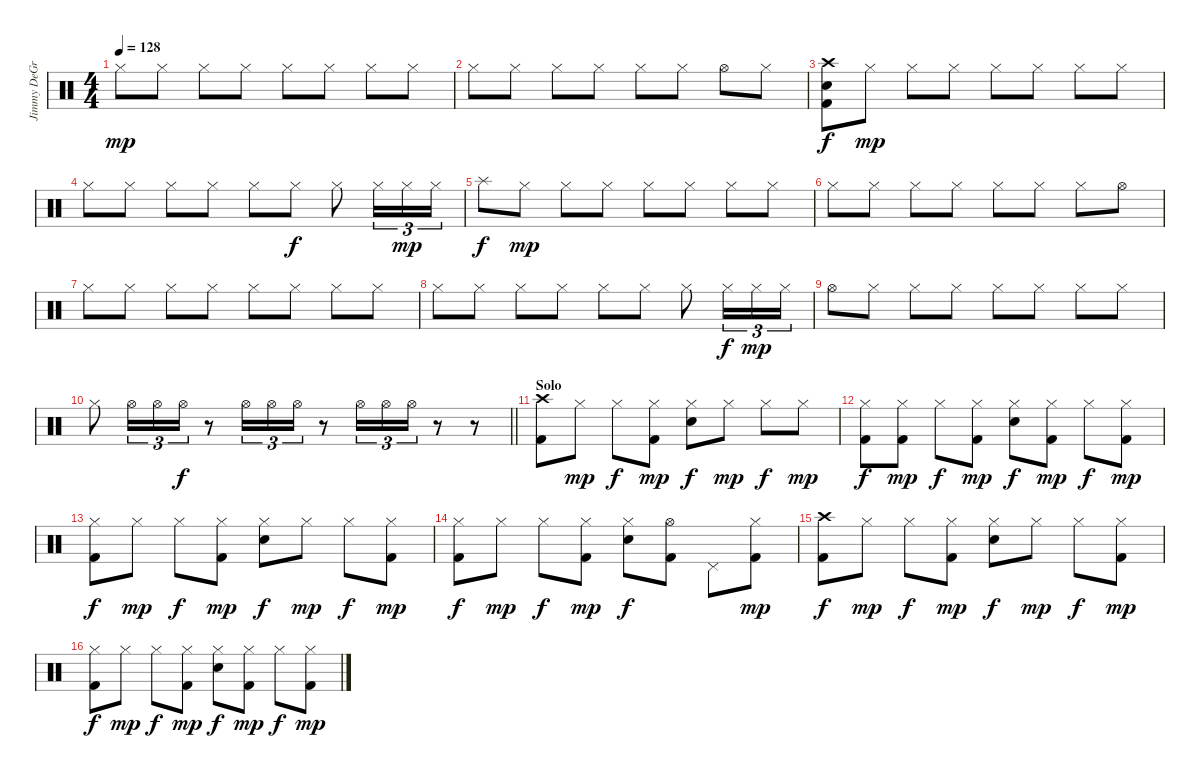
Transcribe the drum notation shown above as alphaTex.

\track ("Jimmy DeGrasso" "Jimmy DeGr") {instrument percussion}
\staff {score}
\articulation defaults
\ts (4 4)
\tempo 128
\clef neutral
\ks c "Hi-Hat (closed)".8{dy mp} "Hi-Hat (closed)".8 "Hi-Hat (closed)".8 "Hi-Hat (closed)".8 "Hi-Hat (closed)".8 "Hi-Hat (closed)".8 "Hi-Hat (closed)".8 "Hi-Hat (closed)".8
|
"Hi-Hat (closed)".8 "Hi-Hat (closed)".8 "Hi-Hat (closed)".8 "Hi-Hat (closed)".8 "Hi-Hat (closed)".8 "Hi-Hat (closed)".8 "Hi-Hat (open)".8 "Hi-Hat (closed)".8 |
("Crash high (hit)" "Snare (hit) 2" "Kick (hit) 2").8{dy f} "Hi-Hat (closed)".8{dy mp} "Hi-Hat (closed)".8 "Hi-Hat (closed)".8 "Hi-Hat (closed)".8 "Hi-Hat (closed)".8 "Hi-Hat (closed)".8 "Hi-Hat (closed)".8 |
"Hi-Hat (closed)".8 "Hi-Hat (closed)".8 "Hi-Hat (closed)".8 "Hi-Hat (closed)".8 "Hi-Hat (closed)".8 "Hi-Hat (closed)".8{dy f} "Hi-Hat (closed)".8 "Hi-Hat (closed)".16{tu (3 2)} "Hi-Hat (closed)".16{tu (3 2) dy mp} "Hi-Hat (closed)".16{tu (3 2)} |
"Splash (hit)".8{dy f} "Hi-Hat (closed)".8{dy mp} "Hi-Hat (closed)".8 "Hi-Hat (closed)".8 "Hi-Hat (closed)".8 "Hi-Hat (closed)".8 "Hi-Hat (closed)".8 "Hi-Hat (closed)".8 |
"Hi-Hat (closed)".8 "Hi-Hat (closed)".8 "Hi-Hat (closed)".8 "Hi-Hat (closed)".8 "Hi-Hat (closed)".8 "Hi-Hat (closed)".8 "Hi-Hat (closed)".8 "Hi-Hat (open)".8 |
"Hi-Hat (closed)".8 "Hi-Hat (closed)".8 "Hi-Hat (closed)".8 "Hi-Hat (closed)".8 "Hi-Hat (closed)".8 "Hi-Hat (closed)".8 "Hi-Hat (closed)".8 "Hi-Hat (closed)".8 |
"Hi-Hat (closed)".8 "Hi-Hat (closed)".8 "Hi-Hat (closed)".8 "Hi-Hat (closed)".8 "Hi-Hat (closed)".8 "Hi-Hat (closed)".8 "Hi-Hat (closed)".8 "Hi-Hat (closed)".16{tu (3 2) dy f} "Hi-Hat (closed)".16{tu (3 2) dy mp} "Hi-Hat (closed)".16{tu (3 2)} |
"Hi-Hat (open)".8 "Hi-Hat (closed)".8 "Hi-Hat (closed)".8 "Hi-Hat (closed)".8 "Hi-Hat (closed)".8 "Hi-Hat (closed)".8 "Hi-Hat (closed)".8 "Hi-Hat (closed)".8 |
\barLineRight lightlight "Hi-Hat (closed)".8 "Hi-Hat (open)".16{tu (3 2)} "Hi-Hat (open)".16{tu (3 2)} "Hi-Hat (open)".16{tu (3 2) dy f}
r.8 "Hi-Hat (open)".16{tu (3 2)} "Hi-Hat (open)".16{tu (3 2)} "Hi-Hat (open)".16{tu (3 2)} r.8 "Hi-Hat (open)".16{tu (3 2)} "Hi-Hat (open)".16{tu (3 2)} "Hi-Hat (open)".16{tu (3 2)} r.8 r.8 |
\section ("" "Solo")
("Crash high (hit)" "Kick (hit) 2").8 "Hi-Hat (closed)".8{dy mp} "Hi-Hat (closed)".8{dy f} ("Hi-Hat (closed)" "Kick (hit) 2").8{dy mp} ("Hi-Hat (closed)" "Snare (hit) 2").8{dy f} "Hi-Hat (closed)".8{dy mp} "Hi-Hat (closed)".8{dy f} "Hi-Hat (closed)".8{dy mp} |
("Hi-Hat (closed)" "Kick (hit) 2").8{dy f} ("Hi-Hat (closed)" "Kick (hit) 2").8{dy mp} "Hi-Hat (closed)".8{dy f} ("Hi-Hat (closed)" "Kick (hit) 2").8{dy mp} ("Hi-Hat (closed)" "Snare (hit) 2").8{dy f} ("Hi-Hat (closed)" "Kick (hit) 2").8{dy mp} "Hi-Hat (closed)".8{dy f} ("Hi-Hat (closed)" "Kick (hit) 2").8{dy mp} |
("Hi-Hat (closed)" "Kick (hit) 2").8{dy f} "Hi-Hat (closed)".8{dy mp} "Hi-Hat (closed)".8{dy f} ("Hi-Hat (closed)" "Kick (hit) 2").8{dy mp} ("Hi-Hat (closed)" "Snare (hit) 2").8{dy f} "Hi-Hat (closed)".8{dy mp} "Hi-Hat (closed)".8{dy f} ("Hi-Hat (closed)" "Kick (hit) 2").8{dy mp} |
("Hi-Hat (closed)" "Kick (hit) 2").8{dy f} "Hi-Hat (closed)".8{dy mp} "Hi-Hat (closed)".8{dy f} ("Hi-Hat (closed)" "Kick (hit) 2").8{dy mp} ("Hi-Hat (closed)" "Snare (hit) 2").8{dy f} ("Hi-Hat (open)" "Kick (hit) 2").8 "Pedal Hi-Hat (hit)".8 ("Hi-Hat (closed)" "Kick (hit) 2").8{dy mp} |
("Crash high (hit)" "Kick (hit) 2").8{dy f} "Hi-Hat (closed)".8{dy mp} "Hi-Hat (closed)".8{dy f} ("Hi-Hat (closed)" "Kick (hit) 2").8{dy mp} ("Hi-Hat (closed)" "Snare (hit) 2").8{dy f} "Hi-Hat (closed)".8{dy mp} "Hi-Hat (closed)".8{dy f} ("Hi-Hat (closed)" "Kick (hit) 2").8{dy mp} |
("Hi-Hat (closed)" "Kick (hit) 2").8{dy f} "Hi-Hat (closed)".8{dy mp} "Hi-Hat (closed)".8{dy f} ("Hi-Hat (closed)" "Kick (hit) 2").8{dy mp} ("Hi-Hat (closed)" "Snare (hit) 2").8{dy f} ("Hi-Hat (closed)" "Kick (hit) 2").8{dy mp} "Hi-Hat (closed)".8{dy f} ("Hi-Hat (closed)" "Kick (hit) 2").8{dy mp}
